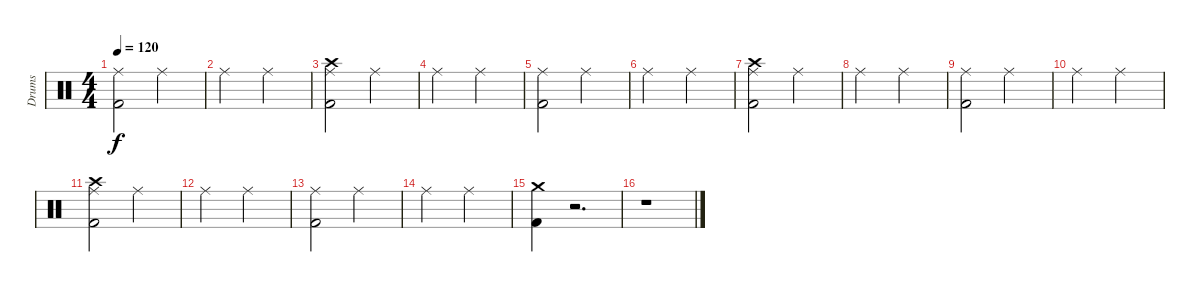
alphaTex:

\track ("Drums" "Drums") {instrument percussion}
\staff {score}
\articulation defaults
\ts (4 4)
\tempo 120
\clef neutral
\ks c
("Ride (middle)" "Kick (hit) 2").2{dy f} "Ride (middle)".2 |
"Ride (middle)".2 "Ride (middle)".2 |
("Ride (middle)" "Crash high (hit)" "Kick (hit) 2").2 "Ride (middle)".2 |
"Ride (middle)".2 "Ride (middle)".2 |
("Ride (middle)" "Kick (hit) 2").2 "Ride (middle)".2 |
"Ride (middle)".2 "Ride (middle)".2 |
("Ride (middle)" "Crash high (hit)" "Kick (hit) 2").2 "Ride (middle)".2 |
"Ride (middle)".2 "Ride (middle)".2 |
("Ride (middle)" "Kick (hit) 2").2 "Ride (middle)".2 |
"Ride (middle)".2 "Ride (middle)".2 |
("Ride (middle)" "Crash high (hit)" "Kick (hit) 2").2 "Ride (middle)".2 |
"Ride (middle)".2 "Ride (middle)".2 |
("Ride (middle)" "Kick (hit) 2").2 "Ride (middle)".2 |
"Ride (middle)".2 "Ride (middle)".2 |
("Crash medium (hit)" "Kick (hit) 2").4 r.2{d} |
r.1
